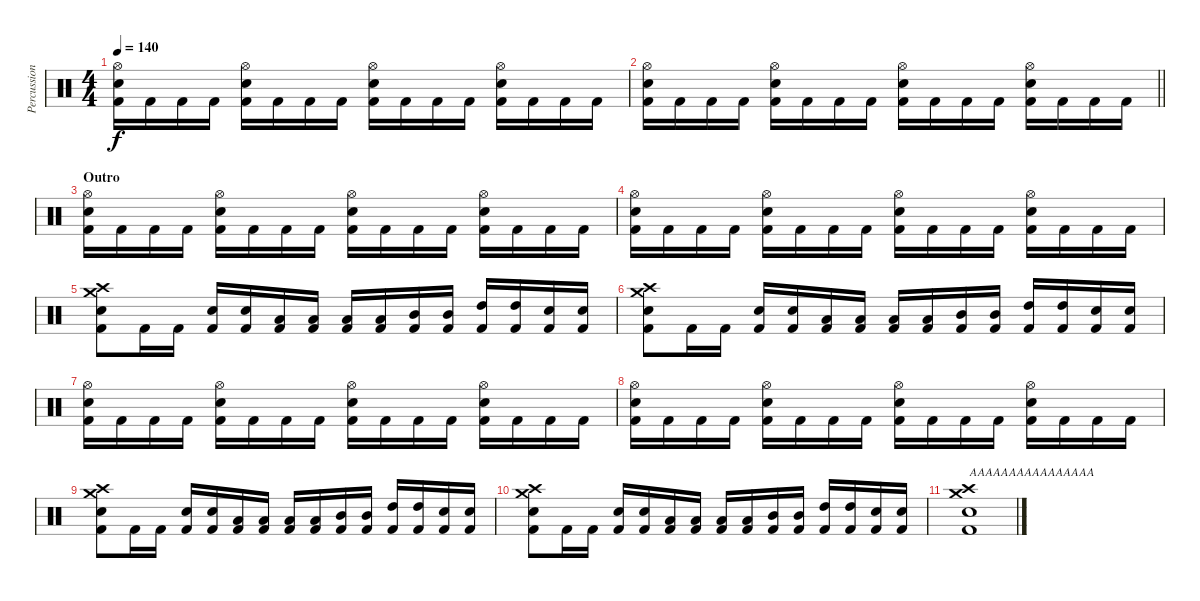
\track ("Percussioni" "Percussion") {instrument percussion}
\staff {score}
\articulation defaults
\ts (4 4)
\tempo 140
\clef neutral
\ks c
("Hi-Hat (open)" "Electric Snare (hit)" "Kick (hit) 2").16{dy f} "Kick (hit) 2".16 "Kick (hit) 2".16 "Kick (hit) 2".16 ("Hi-Hat (open)" "Electric Snare (hit)" "Kick (hit) 2").16 "Kick (hit) 2".16 "Kick (hit) 2".16 "Kick (hit) 2".16 ("Hi-Hat (open)" "Electric Snare (hit)" "Kick (hit) 2").16 "Kick (hit) 2".16 "Kick (hit) 2".16 "Kick (hit) 2".16 ("Hi-Hat (open)" "Electric Snare (hit)" "Kick (hit) 2").16 "Kick (hit) 2".16 "Kick (hit) 2".16 "Kick (hit) 2".16 |
\barLineRight lightlight
("Hi-Hat (open)" "Electric Snare (hit)" "Kick (hit) 2").16 "Kick (hit) 2".16 "Kick (hit) 2".16 "Kick (hit) 2".16 ("Hi-Hat (open)" "Electric Snare (hit)" "Kick (hit) 2").16 "Kick (hit) 2".16 "Kick (hit) 2".16 "Kick (hit) 2".16 ("Hi-Hat (open)" "Electric Snare (hit)" "Kick (hit) 2").16 "Kick (hit) 2".16 "Kick (hit) 2".16 "Kick (hit) 2".16 ("Hi-Hat (open)" "Electric Snare (hit)" "Kick (hit) 2").16 "Kick (hit) 2".16 "Kick (hit) 2".16 "Kick (hit) 2".16 |
\section ("" "Outro")
("Hi-Hat (open)" "Electric Snare (hit)" "Kick (hit) 2").16 "Kick (hit) 2".16 "Kick (hit) 2".16 "Kick (hit) 2".16 ("Hi-Hat (open)" "Electric Snare (hit)" "Kick (hit) 2").16 "Kick (hit) 2".16 "Kick (hit) 2".16 "Kick (hit) 2".16 ("Hi-Hat (open)" "Electric Snare (hit)" "Kick (hit) 2").16 "Kick (hit) 2".16 "Kick (hit) 2".16 "Kick (hit) 2".16 ("Hi-Hat (open)" "Electric Snare (hit)" "Kick (hit) 2").16 "Kick (hit) 2".16 "Kick (hit) 2".16 "Kick (hit) 2".16 |
("Hi-Hat (open)" "Electric Snare (hit)" "Kick (hit) 2").16 "Kick (hit) 2".16 "Kick (hit) 2".16 "Kick (hit) 2".16 ("Hi-Hat (open)" "Electric Snare (hit)" "Kick (hit) 2").16 "Kick (hit) 2".16 "Kick (hit) 2".16 "Kick (hit) 2".16 ("Hi-Hat (open)" "Electric Snare (hit)" "Kick (hit) 2").16 "Kick (hit) 2".16 "Kick (hit) 2".16 "Kick (hit) 2".16 ("Hi-Hat (open)" "Electric Snare (hit)" "Kick (hit) 2").16 "Kick (hit) 2".16 "Kick (hit) 2".16 "Kick (hit) 2".16 |
("Crash high (hit)" "Crash medium (hit)" "Electric Snare (hit)" "Kick (hit) 2").8 "Kick (hit) 2".16 "Kick (hit) 2".16 ("Electric Snare (hit)" "Kick (hit) 2").16 ("Electric Snare (hit)" "Kick (hit) 2").16 ("Low Floor Tom (hit)" "Kick (hit) 2").16 ("Low Floor Tom (hit)" "Kick (hit) 2").16 ("Low Tom (hit)" "Kick (hit) 2").16 ("Low Tom (hit)" "Kick (hit) 2").16 ("Mid Tom (hit)" "Kick (hit) 2").16 ("Mid Tom (hit)" "Kick (hit) 2").16 ("High Tom (hit)" "Kick (hit) 2").16 ("High Tom (hit)" "Kick (hit) 2").16 ("Electric Snare (hit)" "Kick (hit) 2").16 ("Electric Snare (hit)" "Kick (hit) 2").16 |
("Crash high (hit)" "Crash medium (hit)" "Electric Snare (hit)" "Kick (hit) 2").8 "Kick (hit) 2".16 "Kick (hit) 2".16 ("Electric Snare (hit)" "Kick (hit) 2").16 ("Electric Snare (hit)" "Kick (hit) 2").16 ("Low Floor Tom (hit)" "Kick (hit) 2").16 ("Low Floor Tom (hit)" "Kick (hit) 2").16 ("Low Tom (hit)" "Kick (hit) 2").16 ("Low Tom (hit)" "Kick (hit) 2").16 ("Mid Tom (hit)" "Kick (hit) 2").16 ("Mid Tom (hit)" "Kick (hit) 2").16 ("High Tom (hit)" "Kick (hit) 2").16 ("High Tom (hit)" "Kick (hit) 2").16 ("Electric Snare (hit)" "Kick (hit) 2").16 ("Electric Snare (hit)" "Kick (hit) 2").16 |
("Hi-Hat (open)" "Electric Snare (hit)" "Kick (hit) 2").16 "Kick (hit) 2".16 "Kick (hit) 2".16 "Kick (hit) 2".16 ("Hi-Hat (open)" "Electric Snare (hit)" "Kick (hit) 2").16 "Kick (hit) 2".16 "Kick (hit) 2".16 "Kick (hit) 2".16 ("Hi-Hat (open)" "Electric Snare (hit)" "Kick (hit) 2").16 "Kick (hit) 2".16 "Kick (hit) 2".16 "Kick (hit) 2".16 ("Hi-Hat (open)" "Electric Snare (hit)" "Kick (hit) 2").16 "Kick (hit) 2".16 "Kick (hit) 2".16 "Kick (hit) 2".16 |
("Hi-Hat (open)" "Electric Snare (hit)" "Kick (hit) 2").16 "Kick (hit) 2".16 "Kick (hit) 2".16 "Kick (hit) 2".16 ("Hi-Hat (open)" "Electric Snare (hit)" "Kick (hit) 2").16 "Kick (hit) 2".16 "Kick (hit) 2".16 "Kick (hit) 2".16 ("Hi-Hat (open)" "Electric Snare (hit)" "Kick (hit) 2").16 "Kick (hit) 2".16 "Kick (hit) 2".16 "Kick (hit) 2".16 ("Hi-Hat (open)" "Electric Snare (hit)" "Kick (hit) 2").16 "Kick (hit) 2".16 "Kick (hit) 2".16 "Kick (hit) 2".16 |
("Crash high (hit)" "Crash medium (hit)" "Electric Snare (hit)" "Kick (hit) 2").8 "Kick (hit) 2".16 "Kick (hit) 2".16 ("Electric Snare (hit)" "Kick (hit) 2").16 ("Electric Snare (hit)" "Kick (hit) 2").16 ("Low Floor Tom (hit)" "Kick (hit) 2").16 ("Low Floor Tom (hit)" "Kick (hit) 2").16 ("Low Tom (hit)" "Kick (hit) 2").16 ("Low Tom (hit)" "Kick (hit) 2").16 ("Mid Tom (hit)" "Kick (hit) 2").16 ("Mid Tom (hit)" "Kick (hit) 2").16 ("High Tom (hit)" "Kick (hit) 2").16 ("High Tom (hit)" "Kick (hit) 2").16 ("Electric Snare (hit)" "Kick (hit) 2").16 ("Electric Snare (hit)" "Kick (hit) 2").16 |
("Crash high (hit)" "Crash medium (hit)" "Electric Snare (hit)" "Kick (hit) 2").8 "Kick (hit) 2".16 "Kick (hit) 2".16 ("Electric Snare (hit)" "Kick (hit) 2").16 ("Electric Snare (hit)" "Kick (hit) 2").16 ("Low Floor Tom (hit)" "Kick (hit) 2").16 ("Low Floor Tom (hit)" "Kick (hit) 2").16 ("Low Tom (hit)" "Kick (hit) 2").16 ("Low Tom (hit)" "Kick (hit) 2").16 ("Mid Tom (hit)" "Kick (hit) 2").16 ("Mid Tom (hit)" "Kick (hit) 2").16 ("High Tom (hit)" "Kick (hit) 2").16 ("High Tom (hit)" "Kick (hit) 2").16 ("Electric Snare (hit)" "Kick (hit) 2").16 ("Electric Snare (hit)" "Kick (hit) 2").16 |
("Crash high (hit)" "Crash medium (hit)" "Electric Snare (hit)" "Kick (hit) 2").1{txt "AAAAAAAAAAAAAAAA"}
